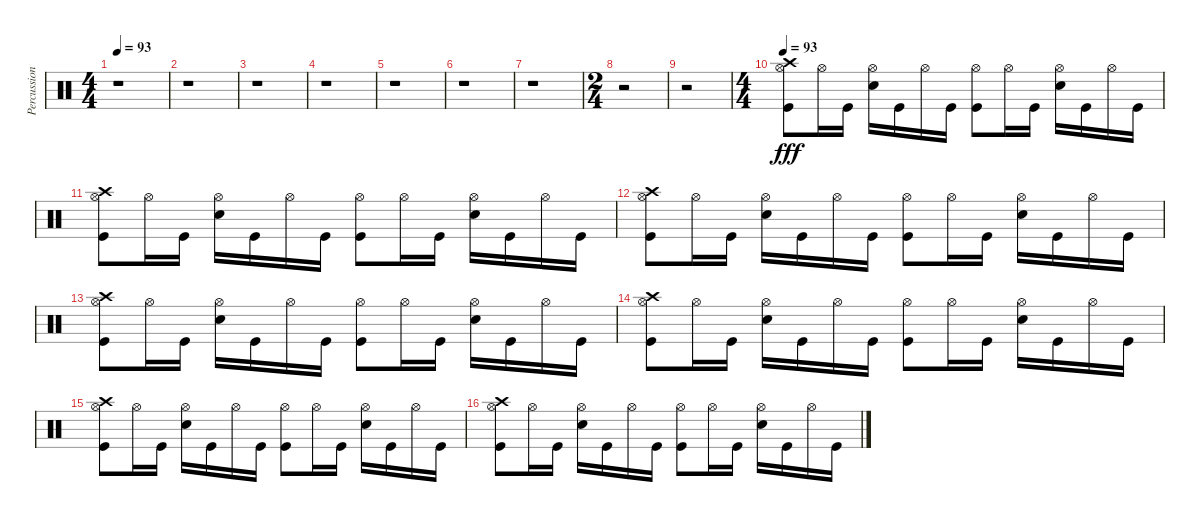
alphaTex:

\track ("Percussion" "Percussion") {instrument percussion}
\staff {score}
\articulation defaults
\ts (4 4)
\tempo 93
\clef neutral
\ks c
r.1{dy fff} |
r.1 |
r.1 |
r.1 |
r.1 |
r.1 |
r.1 |
\ts (2 4)
r.2 |
r.2 |
\ts (4 4)
\tempo 93
("Hi-Hat (open)" "Crash high (hit)" "Kick (hit)").8{volume 16} "Hi-Hat (open)".16 "Kick (hit)".16 ("Hi-Hat (open)" "Snare (hit) 2").16 "Kick (hit)".16 "Hi-Hat (open)".16 "Kick (hit)".16 ("Hi-Hat (open)" "Kick (hit)").8 "Hi-Hat (open)".16 "Kick (hit)".16 ("Hi-Hat (open)" "Snare (hit) 2").16 "Kick (hit)".16 "Hi-Hat (open)".16 "Kick (hit)".16 |
("Hi-Hat (open)" "Crash high (hit)" "Kick (hit)").8 "Hi-Hat (open)".16 "Kick (hit)".16 ("Hi-Hat (open)" "Snare (hit) 2").16 "Kick (hit)".16 "Hi-Hat (open)".16 "Kick (hit)".16 ("Hi-Hat (open)" "Kick (hit)").8 "Hi-Hat (open)".16 "Kick (hit)".16 ("Hi-Hat (open)" "Snare (hit) 2").16 "Kick (hit)".16 "Hi-Hat (open)".16 "Kick (hit)".16 |
("Hi-Hat (open)" "Crash high (hit)" "Kick (hit)").8 "Hi-Hat (open)".16 "Kick (hit)".16 ("Hi-Hat (open)" "Snare (hit) 2").16 "Kick (hit)".16 "Hi-Hat (open)".16 "Kick (hit)".16 ("Hi-Hat (open)" "Kick (hit)").8 "Hi-Hat (open)".16 "Kick (hit)".16 ("Hi-Hat (open)" "Snare (hit) 2").16 "Kick (hit)".16 "Hi-Hat (open)".16 "Kick (hit)".16 |
("Hi-Hat (open)" "Crash high (hit)" "Kick (hit)").8 "Hi-Hat (open)".16 "Kick (hit)".16 ("Hi-Hat (open)" "Snare (hit) 2").16 "Kick (hit)".16 "Hi-Hat (open)".16 "Kick (hit)".16 ("Hi-Hat (open)" "Kick (hit)").8 "Hi-Hat (open)".16 "Kick (hit)".16 ("Hi-Hat (open)" "Snare (hit) 2").16 "Kick (hit)".16 "Hi-Hat (open)".16 "Kick (hit)".16 |
("Hi-Hat (open)" "Crash high (hit)" "Kick (hit)").8 "Hi-Hat (open)".16 "Kick (hit)".16 ("Hi-Hat (open)" "Snare (hit) 2").16 "Kick (hit)".16 "Hi-Hat (open)".16 "Kick (hit)".16 ("Hi-Hat (open)" "Kick (hit)").8 "Hi-Hat (open)".16 "Kick (hit)".16 ("Hi-Hat (open)" "Snare (hit) 2").16 "Kick (hit)".16 "Hi-Hat (open)".16 "Kick (hit)".16 |
("Hi-Hat (open)" "Crash high (hit)" "Kick (hit)").8 "Hi-Hat (open)".16 "Kick (hit)".16 ("Hi-Hat (open)" "Snare (hit) 2").16 "Kick (hit)".16 "Hi-Hat (open)".16 "Kick (hit)".16 ("Hi-Hat (open)" "Kick (hit)").8 "Hi-Hat (open)".16 "Kick (hit)".16 ("Hi-Hat (open)" "Snare (hit) 2").16 "Kick (hit)".16 "Hi-Hat (open)".16 "Kick (hit)".16 |
("Hi-Hat (open)" "Crash high (hit)" "Kick (hit)").8 "Hi-Hat (open)".16 "Kick (hit)".16 ("Hi-Hat (open)" "Snare (hit) 2").16 "Kick (hit)".16 "Hi-Hat (open)".16 "Kick (hit)".16 ("Hi-Hat (open)" "Kick (hit)").8 "Hi-Hat (open)".16 "Kick (hit)".16 ("Hi-Hat (open)" "Snare (hit) 2").16 "Kick (hit)".16 "Hi-Hat (open)".16 "Kick (hit)".16
